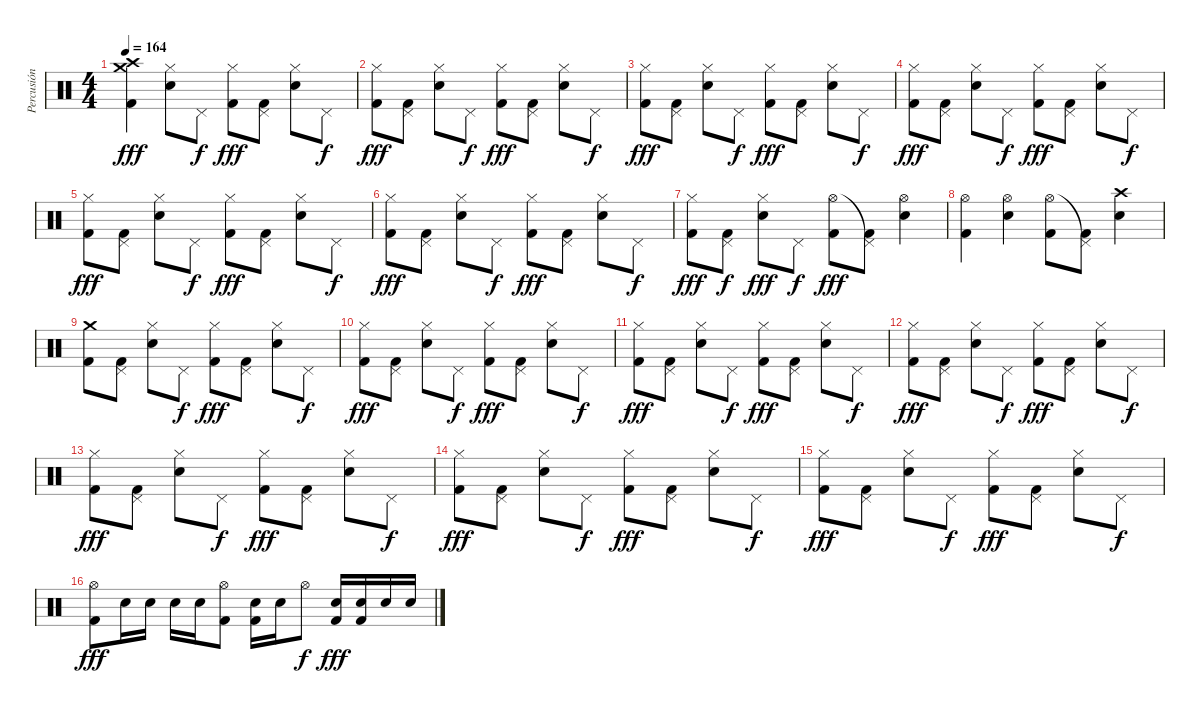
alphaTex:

\track ("Percusión" "Percusión") {instrument percussion}
\staff {score}
\articulation defaults
\ts (4 4)
\tempo 164
\clef neutral
\ks c
("Crash medium (hit)" "Crash high (hit)" "Kick (hit) 2").4{dy fff} ("Hi-Hat (closed)" "Snare (hit) 2").8 "Pedal Hi-Hat (hit)".8{dy f} ("Hi-Hat (closed)" "Kick (hit) 2").8{dy fff} ("Pedal Hi-Hat (hit)" "Kick (hit) 2").8 ("Hi-Hat (closed)" "Snare (hit) 2").8 "Pedal Hi-Hat (hit)".8{dy f} |
("Hi-Hat (closed)" "Kick (hit) 2").8{dy fff} ("Pedal Hi-Hat (hit)" "Kick (hit) 2").8 ("Hi-Hat (closed)" "Snare (hit) 2").8 "Pedal Hi-Hat (hit)".8{dy f} ("Hi-Hat (closed)" "Kick (hit) 2").8{dy fff} ("Pedal Hi-Hat (hit)" "Kick (hit) 2").8 ("Hi-Hat (closed)" "Snare (hit) 2").8 "Pedal Hi-Hat (hit)".8{dy f} |
("Hi-Hat (closed)" "Kick (hit) 2").8{dy fff} ("Pedal Hi-Hat (hit)" "Kick (hit) 2").8 ("Hi-Hat (closed)" "Snare (hit) 2").8 "Pedal Hi-Hat (hit)".8{dy f} ("Hi-Hat (closed)" "Kick (hit) 2").8{dy fff} ("Pedal Hi-Hat (hit)" "Kick (hit) 2").8 ("Hi-Hat (closed)" "Snare (hit) 2").8 "Pedal Hi-Hat (hit)".8{dy f} |
("Hi-Hat (closed)" "Kick (hit) 2").8{dy fff} ("Pedal Hi-Hat (hit)" "Kick (hit) 2").8 ("Hi-Hat (closed)" "Snare (hit) 2").8 "Pedal Hi-Hat (hit)".8{dy f} ("Hi-Hat (closed)" "Kick (hit) 2").8{dy fff} ("Pedal Hi-Hat (hit)" "Kick (hit) 2").8 ("Hi-Hat (closed)" "Snare (hit) 2").8 "Pedal Hi-Hat (hit)".8{dy f} |
("Hi-Hat (closed)" "Kick (hit) 2").8{dy fff} ("Pedal Hi-Hat (hit)" "Kick (hit) 2").8 ("Hi-Hat (closed)" "Snare (hit) 2").8 "Pedal Hi-Hat (hit)".8{dy f} ("Hi-Hat (closed)" "Kick (hit) 2").8{dy fff} ("Pedal Hi-Hat (hit)" "Kick (hit) 2").8 ("Hi-Hat (closed)" "Snare (hit) 2").8 "Pedal Hi-Hat (hit)".8{dy f} |
("Hi-Hat (closed)" "Kick (hit) 2").8{dy fff} ("Pedal Hi-Hat (hit)" "Kick (hit) 2").8 ("Hi-Hat (closed)" "Snare (hit) 2").8 "Pedal Hi-Hat (hit)".8{dy f} ("Hi-Hat (closed)" "Kick (hit) 2").8{dy fff} ("Pedal Hi-Hat (hit)" "Kick (hit) 2").8 ("Hi-Hat (closed)" "Snare (hit) 2").8 "Pedal Hi-Hat (hit)".8{dy f} |
("Hi-Hat (closed)" "Kick (hit) 2").8{dy fff} ("Pedal Hi-Hat (hit)" "Kick (hit) 2").8{dy f} ("Hi-Hat (closed)" "Snare (hit) 2").8{dy fff} "Pedal Hi-Hat (hit)".8{dy f} ("Hi-Hat (open)" "Kick (hit) 2").8{dy fff} ("Pedal Hi-Hat (hit)"{t} "Kick (hit) 2").8 ("Hi-Hat (open)" "Snare (hit) 2").4 |
("Hi-Hat (open)" "Kick (hit) 2").4 ("Hi-Hat (open)" "Snare (hit) 2").4 ("Hi-Hat (open)" "Kick (hit) 2").8 ("Pedal Hi-Hat (hit)"{t} "Kick (hit) 2").8 ("Crash high (hit)" "Snare (hit) 2").4 |
("Crash medium (hit)" "Kick (hit) 2").8 ("Pedal Hi-Hat (hit)" "Kick (hit) 2").8 ("Hi-Hat (closed)" "Snare (hit) 2").8 "Pedal Hi-Hat (hit)".8{dy f} ("Hi-Hat (closed)" "Kick (hit) 2").8{dy fff} ("Pedal Hi-Hat (hit)" "Kick (hit) 2").8 ("Hi-Hat (closed)" "Snare (hit) 2").8 "Pedal Hi-Hat (hit)".8{dy f} |
("Hi-Hat (closed)" "Kick (hit) 2").8{dy fff} ("Pedal Hi-Hat (hit)" "Kick (hit) 2").8 ("Hi-Hat (closed)" "Snare (hit) 2").8 "Pedal Hi-Hat (hit)".8{dy f} ("Hi-Hat (closed)" "Kick (hit) 2").8{dy fff} ("Pedal Hi-Hat (hit)" "Kick (hit) 2").8 ("Hi-Hat (closed)" "Snare (hit) 2").8 "Pedal Hi-Hat (hit)".8{dy f} |
("Hi-Hat (closed)" "Kick (hit) 2").8{dy fff} ("Pedal Hi-Hat (hit)" "Kick (hit) 2").8 ("Hi-Hat (closed)" "Snare (hit) 2").8 "Pedal Hi-Hat (hit)".8{dy f} ("Hi-Hat (closed)" "Kick (hit) 2").8{dy fff} ("Pedal Hi-Hat (hit)" "Kick (hit) 2").8 ("Hi-Hat (closed)" "Snare (hit) 2").8 "Pedal Hi-Hat (hit)".8{dy f} |
("Hi-Hat (closed)" "Kick (hit) 2").8{dy fff} ("Pedal Hi-Hat (hit)" "Kick (hit) 2").8 ("Hi-Hat (closed)" "Snare (hit) 2").8 "Pedal Hi-Hat (hit)".8{dy f} ("Hi-Hat (closed)" "Kick (hit) 2").8{dy fff} ("Pedal Hi-Hat (hit)" "Kick (hit) 2").8 ("Hi-Hat (closed)" "Snare (hit) 2").8 "Pedal Hi-Hat (hit)".8{dy f} |
("Hi-Hat (closed)" "Kick (hit) 2").8{dy fff} ("Pedal Hi-Hat (hit)" "Kick (hit) 2").8 ("Hi-Hat (closed)" "Snare (hit) 2").8 "Pedal Hi-Hat (hit)".8{dy f} ("Hi-Hat (closed)" "Kick (hit) 2").8{dy fff} ("Pedal Hi-Hat (hit)" "Kick (hit) 2").8 ("Hi-Hat (closed)" "Snare (hit) 2").8 "Pedal Hi-Hat (hit)".8{dy f} |
("Hi-Hat (closed)" "Kick (hit) 2").8{dy fff} ("Pedal Hi-Hat (hit)" "Kick (hit) 2").8 ("Hi-Hat (closed)" "Snare (hit) 2").8 "Pedal Hi-Hat (hit)".8{dy f} ("Hi-Hat (closed)" "Kick (hit) 2").8{dy fff} ("Pedal Hi-Hat (hit)" "Kick (hit) 2").8 ("Hi-Hat (closed)" "Snare (hit) 2").8 "Pedal Hi-Hat (hit)".8{dy f} |
("Hi-Hat (closed)" "Kick (hit) 2").8{dy fff} ("Pedal Hi-Hat (hit)" "Kick (hit) 2").8 ("Hi-Hat (closed)" "Snare (hit) 2").8 "Pedal Hi-Hat (hit)".8{dy f} ("Hi-Hat (closed)" "Kick (hit) 2").8{dy fff} ("Pedal Hi-Hat (hit)" "Kick (hit) 2").8 ("Hi-Hat (closed)" "Snare (hit) 2").8 "Pedal Hi-Hat (hit)".8{dy f} |
("Hi-Hat (open)" "Kick (hit) 2").8{dy fff} "Electric Snare (hit)".16 "Electric Snare (hit)".16 "Electric Snare (hit)".16 "Electric Snare (hit)".16 ("Hi-Hat (open)" "Kick (hit) 2").8 ("Electric Snare (hit)" "Kick (hit) 2").16 "Electric Snare (hit)".16 "Hi-Hat (open)".8{dy f} ("Electric Snare (hit)" "Kick (hit) 2").16{dy fff} ("Electric Snare (hit)" "Kick (hit) 2").16 "Electric Snare (hit)".16 "Electric Snare (hit)".16
